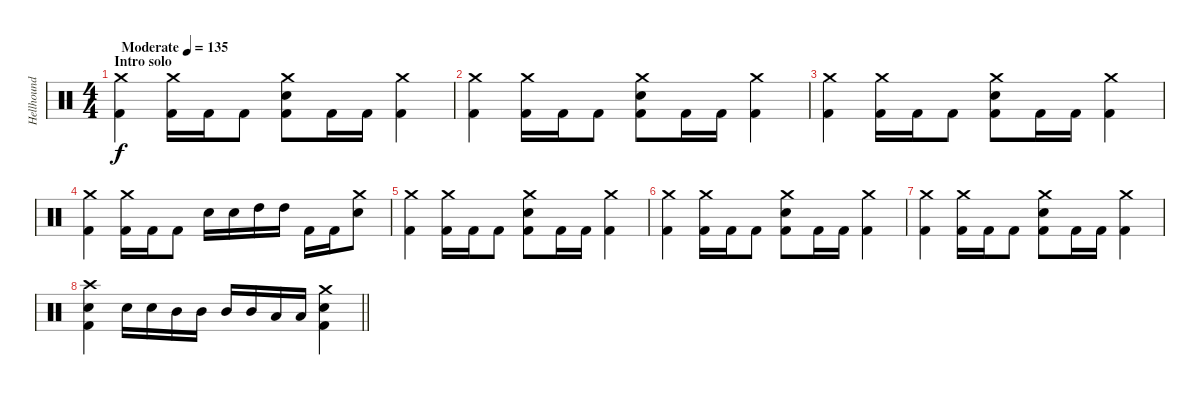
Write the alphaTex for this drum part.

\track ("Hellhound" "Hellhound") {instrument percussion}
\staff {score}
\articulation defaults
\ts (4 4)
\section ("" "Intro solo")
\tempo (135 "Moderate")
\clef neutral
\ks c
("Crash medium (hit)" "Kick (hit) 2").4{dy f} ("Crash medium (hit)" "Kick (hit) 2").16 "Kick (hit) 2".16 "Kick (hit) 2".8 ("Crash medium (hit)" "Electric Snare (hit)" "Kick (hit) 2").8 "Kick (hit) 2".16 "Kick (hit) 2".16 ("Crash medium (hit)" "Kick (hit) 2").4 |
("Crash medium (hit)" "Kick (hit) 2").4 ("Crash medium (hit)" "Kick (hit) 2").16 "Kick (hit) 2".16 "Kick (hit) 2".8 ("Crash medium (hit)" "Electric Snare (hit)" "Kick (hit) 2").8 "Kick (hit) 2".16 "Kick (hit) 2".16 ("Crash medium (hit)" "Kick (hit) 2").4 |
("Crash medium (hit)" "Kick (hit) 2").4 ("Crash medium (hit)" "Kick (hit) 2").16 "Kick (hit) 2".16 "Kick (hit) 2".8 ("Crash medium (hit)" "Electric Snare (hit)" "Kick (hit) 2").8 "Kick (hit) 2".16 "Kick (hit) 2".16 ("Crash medium (hit)" "Kick (hit) 2").4 |
("Crash medium (hit)" "Kick (hit) 2").4 ("Crash medium (hit)" "Kick (hit) 2").16 "Kick (hit) 2".16 "Kick (hit) 2".8 "Electric Snare (hit)".16 "Electric Snare (hit)".16 "High Tom (hit)".16 "High Tom (hit)".16 "Kick (hit) 2".16 "Kick (hit) 2".16 ("Crash medium (hit)" "Electric Snare (hit)").8 |
("Crash medium (hit)" "Kick (hit) 2").4 ("Crash medium (hit)" "Kick (hit) 2").16 "Kick (hit) 2".16 "Kick (hit) 2".8 ("Crash medium (hit)" "Electric Snare (hit)" "Kick (hit) 2").8 "Kick (hit) 2".16 "Kick (hit) 2".16 ("Crash medium (hit)" "Kick (hit) 2").4 |
("Crash medium (hit)" "Kick (hit) 2").4 ("Crash medium (hit)" "Kick (hit) 2").16 "Kick (hit) 2".16 "Kick (hit) 2".8 ("Crash medium (hit)" "Electric Snare (hit)" "Kick (hit) 2").8 "Kick (hit) 2".16 "Kick (hit) 2".16 ("Crash medium (hit)" "Kick (hit) 2").4 |
("Crash medium (hit)" "Kick (hit) 2").4 ("Crash medium (hit)" "Kick (hit) 2").16 "Kick (hit) 2".16 "Kick (hit) 2".8 ("Crash medium (hit)" "Electric Snare (hit)" "Kick (hit) 2").8 "Kick (hit) 2".16 "Kick (hit) 2".16 ("Crash medium (hit)" "Kick (hit) 2").4 |
\barLineRight lightlight
("Crash high (hit)" "Electric Snare (hit)" "Kick (hit) 2").4 "Electric Snare (hit)".16 "Electric Snare (hit)".16 "Mid Tom (hit)".16 "Mid Tom (hit)".16 "Mid Tom (hit)".16 "Mid Tom (hit)".16 "Low Tom (hit)".16 "Low Tom (hit)".16 ("Crash medium (hit)" "Electric Snare (hit)" "Kick (hit) 2").4
